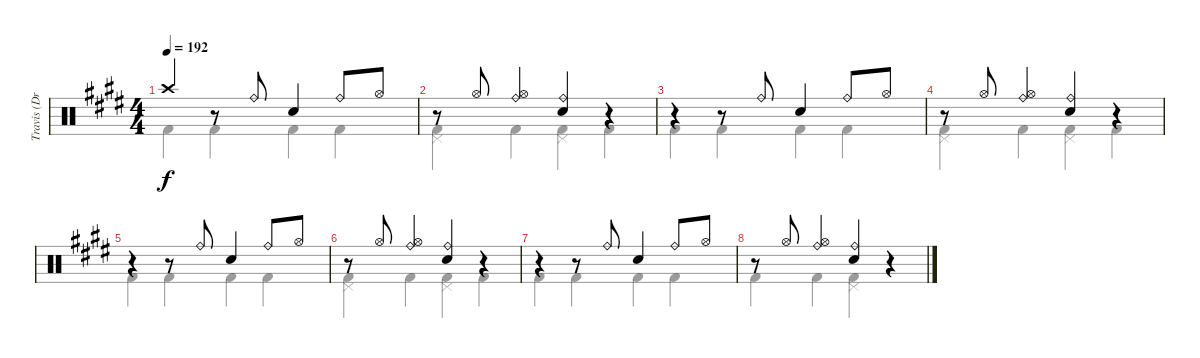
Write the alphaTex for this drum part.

\track ("Travis (Drums)" "Travis (Dr") {instrument percussion}
\staff {score}
\articulation defaults
\voice
\ts (4 4)
\tempo 192
\clef neutral
\ks e "Crash high (hit)".4{dy f}
r.8 "Ride (bell)".8 "Electric Snare (hit)".4 "Ride (bell)".8 "Hi-Hat (open)".8 |
r.8 "Hi-Hat (open)".8 ("Ride (bell)" "Hi-Hat (open)").4 ("Ride (bell)" "Electric Snare (hit)").4 r.4 |
r.4 r.8 "Ride (bell)".8 "Electric Snare (hit)".4 "Ride (bell)".8 "Hi-Hat (open)".8 |
r.8 "Hi-Hat (open)".8 ("Ride (bell)" "Hi-Hat (open)").4 ("Ride (bell)" "Electric Snare (hit)").4 r.4 |
r.4 r.8 "Ride (bell)".8 "Electric Snare (hit)".4 "Ride (bell)".8 "Hi-Hat (open)".8 |
r.8 "Hi-Hat (open)".8 ("Ride (bell)" "Hi-Hat (open)").4 ("Ride (bell)" "Electric Snare (hit)").4 r.4 |
r.4 r.8 "Ride (bell)".8 "Electric Snare (hit)".4 "Ride (bell)".8 "Hi-Hat (open)".8 |
r.8 "Hi-Hat (open)".8 ("Ride (bell)" "Hi-Hat (open)").4 ("Ride (bell)" "Electric Snare (hit)").4 r.4 |
\voice
\clef neutral
\ottava regular
\simile none
\ks e "Kick (hit) 2".4{dy f} "Kick (hit) 2".4 "Kick (hit) 2".4 "Kick (hit) 2".4
|
("Kick (hit) 2" "Pedal Hi-Hat (hit)").4 "Kick (hit) 2".4 ("Kick (hit) 2" "Pedal Hi-Hat (hit)").4 "Kick (hit) 2".4 |
"Kick (hit) 2".4 "Kick (hit) 2".4 "Kick (hit) 2".4 "Kick (hit) 2".4 |
("Kick (hit) 2" "Pedal Hi-Hat (hit)").4 "Kick (hit) 2".4 ("Kick (hit) 2" "Pedal Hi-Hat (hit)").4 "Kick (hit) 2".4 |
"Kick (hit) 2".4 "Kick (hit) 2".4 "Kick (hit) 2".4 "Kick (hit) 2".4 |
("Kick (hit) 2" "Pedal Hi-Hat (hit)").4 "Kick (hit) 2".4 ("Kick (hit) 2" "Pedal Hi-Hat (hit)").4 "Kick (hit) 2".4 |
"Kick (hit) 2".4 "Kick (hit) 2".4 "Kick (hit) 2".4 "Kick (hit) 2".4 |
"Kick (hit) 2".4 "Kick (hit) 2".4 ("Kick (hit) 2" "Pedal Hi-Hat (hit)").4 r.4 |
